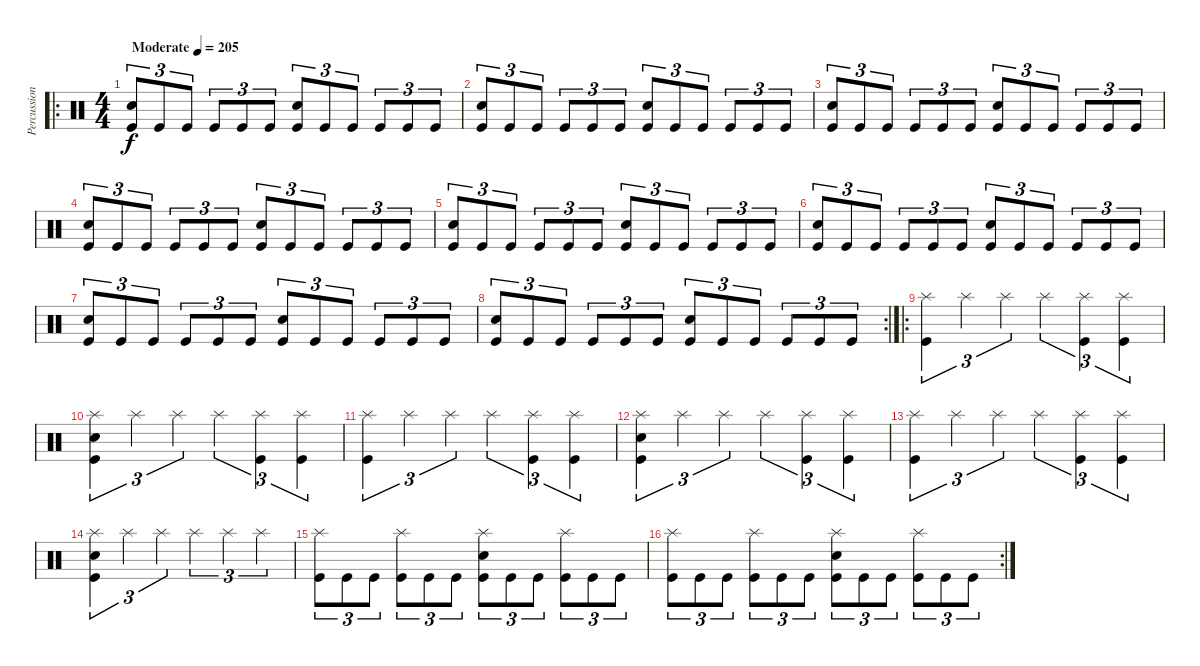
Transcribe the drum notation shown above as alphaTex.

\track ("Percussion" "Percussion") {instrument percussion}
\staff {score}
\articulation defaults
\ro
\ts (4 4)
\tempo (205 "Moderate")
\clef neutral
\ks c
("Snare (hit) 2" "Kick (hit)").8{tu (3 2) dy f} "Kick (hit)".8{tu (3 2)} "Kick (hit)".8{tu (3 2)} "Kick (hit)".8{tu (3 2)} "Kick (hit)".8{tu (3 2)} "Kick (hit)".8{tu (3 2)} ("Snare (hit) 2" "Kick (hit)").8{tu (3 2)} "Kick (hit)".8{tu (3 2)} "Kick (hit)".8{tu (3 2)} "Kick (hit)".8{tu (3 2)} "Kick (hit)".8{tu (3 2)} "Kick (hit)".8{tu (3 2)} |
("Snare (hit) 2" "Kick (hit)").8{tu (3 2)} "Kick (hit)".8{tu (3 2)} "Kick (hit)".8{tu (3 2)} "Kick (hit)".8{tu (3 2)} "Kick (hit)".8{tu (3 2)} "Kick (hit)".8{tu (3 2)} ("Snare (hit) 2" "Kick (hit)").8{tu (3 2)} "Kick (hit)".8{tu (3 2)} "Kick (hit)".8{tu (3 2)} "Kick (hit)".8{tu (3 2)} "Kick (hit)".8{tu (3 2)} "Kick (hit)".8{tu (3 2)} |
("Snare (hit) 2" "Kick (hit)").8{tu (3 2)} "Kick (hit)".8{tu (3 2)} "Kick (hit)".8{tu (3 2)} "Kick (hit)".8{tu (3 2)} "Kick (hit)".8{tu (3 2)} "Kick (hit)".8{tu (3 2)} ("Snare (hit) 2" "Kick (hit)").8{tu (3 2)} "Kick (hit)".8{tu (3 2)} "Kick (hit)".8{tu (3 2)} "Kick (hit)".8{tu (3 2)} "Kick (hit)".8{tu (3 2)} "Kick (hit)".8{tu (3 2)} |
("Snare (hit) 2" "Kick (hit)").8{tu (3 2)} "Kick (hit)".8{tu (3 2)} "Kick (hit)".8{tu (3 2)} "Kick (hit)".8{tu (3 2)} "Kick (hit)".8{tu (3 2)} "Kick (hit)".8{tu (3 2)} ("Snare (hit) 2" "Kick (hit)").8{tu (3 2)} "Kick (hit)".8{tu (3 2)} "Kick (hit)".8{tu (3 2)} "Kick (hit)".8{tu (3 2)} "Kick (hit)".8{tu (3 2)} "Kick (hit)".8{tu (3 2)} |
("Snare (hit) 2" "Kick (hit)").8{tu (3 2)} "Kick (hit)".8{tu (3 2)} "Kick (hit)".8{tu (3 2)} "Kick (hit)".8{tu (3 2)} "Kick (hit)".8{tu (3 2)} "Kick (hit)".8{tu (3 2)} ("Snare (hit) 2" "Kick (hit)").8{tu (3 2)} "Kick (hit)".8{tu (3 2)} "Kick (hit)".8{tu (3 2)} "Kick (hit)".8{tu (3 2)} "Kick (hit)".8{tu (3 2)} "Kick (hit)".8{tu (3 2)} |
("Snare (hit) 2" "Kick (hit)").8{tu (3 2)} "Kick (hit)".8{tu (3 2)} "Kick (hit)".8{tu (3 2)} "Kick (hit)".8{tu (3 2)} "Kick (hit)".8{tu (3 2)} "Kick (hit)".8{tu (3 2)} ("Snare (hit) 2" "Kick (hit)").8{tu (3 2)} "Kick (hit)".8{tu (3 2)} "Kick (hit)".8{tu (3 2)} "Kick (hit)".8{tu (3 2)} "Kick (hit)".8{tu (3 2)} "Kick (hit)".8{tu (3 2)} |
("Snare (hit) 2" "Kick (hit)").8{tu (3 2)} "Kick (hit)".8{tu (3 2)} "Kick (hit)".8{tu (3 2)} "Kick (hit)".8{tu (3 2)} "Kick (hit)".8{tu (3 2)} "Kick (hit)".8{tu (3 2)} ("Snare (hit) 2" "Kick (hit)").8{tu (3 2)} "Kick (hit)".8{tu (3 2)} "Kick (hit)".8{tu (3 2)} "Kick (hit)".8{tu (3 2)} "Kick (hit)".8{tu (3 2)} "Kick (hit)".8{tu (3 2)} |
\rc 2
("Snare (hit) 2" "Kick (hit)").8{tu (3 2)} "Kick (hit)".8{tu (3 2)} "Kick (hit)".8{tu (3 2)} "Kick (hit)".8{tu (3 2)} "Kick (hit)".8{tu (3 2)} "Kick (hit)".8{tu (3 2)} ("Snare (hit) 2" "Kick (hit)").8{tu (3 2)} "Kick (hit)".8{tu (3 2)} "Kick (hit)".8{tu (3 2)} "Kick (hit)".8{tu (3 2)} "Kick (hit)".8{tu (3 2)} "Kick (hit)".8{tu (3 2)} |
\ro
("Splash (hit)" "Kick (hit)").4{tu (3 2)} "Splash (hit)".4{tu (3 2)} "Splash (hit)".4{tu (3 2)} "Splash (hit)".4{tu (3 2)} ("Splash (hit)" "Kick (hit)").4{tu (3 2)} ("Splash (hit)" "Kick (hit)").4{tu (3 2)} |
("Splash (hit)" "Snare (hit) 2" "Kick (hit)").4{tu (3 2)} "Splash (hit)".4{tu (3 2)} "Splash (hit)".4{tu (3 2)} "Splash (hit)".4{tu (3 2)} ("Splash (hit)" "Kick (hit)").4{tu (3 2)} ("Splash (hit)" "Kick (hit)").4{tu (3 2)} |
("Splash (hit)" "Kick (hit)").4{tu (3 2)} "Splash (hit)".4{tu (3 2)} "Splash (hit)".4{tu (3 2)} "Splash (hit)".4{tu (3 2)} ("Splash (hit)" "Kick (hit)").4{tu (3 2)} ("Splash (hit)" "Kick (hit)").4{tu (3 2)} |
("Splash (hit)" "Snare (hit) 2" "Kick (hit)").4{tu (3 2)} "Splash (hit)".4{tu (3 2)} "Splash (hit)".4{tu (3 2)} "Splash (hit)".4{tu (3 2)} ("Splash (hit)" "Kick (hit)").4{tu (3 2)} ("Splash (hit)" "Kick (hit)").4{tu (3 2)} |
("Splash (hit)" "Kick (hit)").4{tu (3 2)} "Splash (hit)".4{tu (3 2)} "Splash (hit)".4{tu (3 2)} "Splash (hit)".4{tu (3 2)} ("Splash (hit)" "Kick (hit)").4{tu (3 2)} ("Splash (hit)" "Kick (hit)").4{tu (3 2)} |
("Splash (hit)" "Snare (hit) 2" "Kick (hit)").4{tu (3 2)} "Splash (hit)".4{tu (3 2)} "Splash (hit)".4{tu (3 2)} "Splash (hit)".4{tu (3 2)} "Splash (hit)".4{tu (3 2)} "Splash (hit)".4{tu (3 2)} |
("Splash (hit)" "Kick (hit)").8{tu (3 2)} "Kick (hit)".8{tu (3 2)} "Kick (hit)".8{tu (3 2)} ("Splash (hit)" "Kick (hit)").8{tu (3 2)} "Kick (hit)".8{tu (3 2)} "Kick (hit)".8{tu (3 2)} ("Splash (hit)" "Snare (hit) 2" "Kick (hit)").8{tu (3 2)} "Kick (hit)".8{tu (3 2)} "Kick (hit)".8{tu (3 2)} ("Splash (hit)" "Kick (hit)").8{tu (3 2)} "Kick (hit)".8{tu (3 2)} "Kick (hit)".8{tu (3 2)} |
\rc 2
("Splash (hit)" "Kick (hit)").8{tu (3 2)} "Kick (hit)".8{tu (3 2)} "Kick (hit)".8{tu (3 2)} ("Splash (hit)" "Kick (hit)").8{tu (3 2)} "Kick (hit)".8{tu (3 2)} "Kick (hit)".8{tu (3 2)} ("Splash (hit)" "Snare (hit) 2" "Kick (hit)").8{tu (3 2)} "Kick (hit)".8{tu (3 2)} "Kick (hit)".8{tu (3 2)} ("Splash (hit)" "Kick (hit)").8{tu (3 2)} "Kick (hit)".8{tu (3 2)} "Kick (hit)".8{tu (3 2)}
